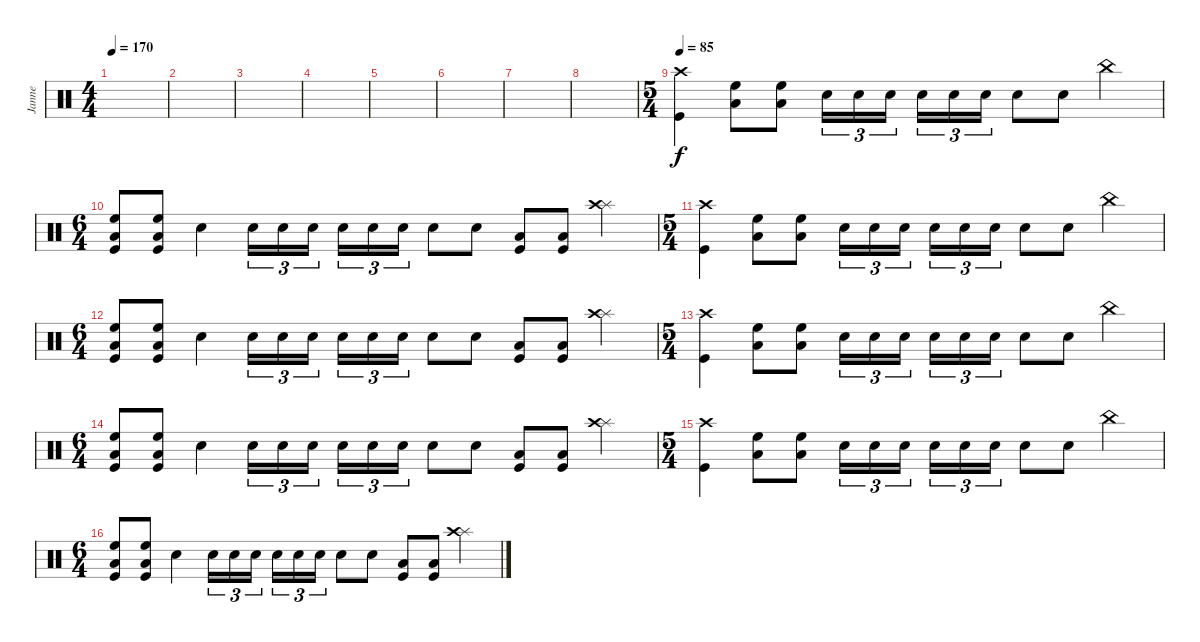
\track ("Janne" "Janne") {instrument percussion}
\staff {score}
\articulation defaults
\ts (4 4)
\tempo 170
\clef neutral
\ks c
|
|
|
|
|
|
|
|
\ts (5 4)
\tempo 85
("Crash high (hit)" "Kick (hit)").4 ("Low Floor Tom (hit)" "High Floor Tom (hit)").8 ("Low Floor Tom (hit)" "High Floor Tom (hit)").8 "Electric Snare (hit)".16{tu (3 2)} "Electric Snare (hit)".16{tu (3 2)} "Electric Snare (hit)".16{tu (3 2)} "Electric Snare (hit)".16{tu (3 2)} "Electric Snare (hit)".16{tu (3 2)} "Electric Snare (hit)".16{tu (3 2)} "Electric Snare (hit)".8 "Electric Snare (hit)".8 "China (hit)".4 |
\ts (6 4)
("High Floor Tom (hit)" "Low Floor Tom (hit)" "Kick (hit)").8 ("High Floor Tom (hit)" "Low Floor Tom (hit)" "Kick (hit)").8 "Electric Snare (hit)".4 "Electric Snare (hit)".16{tu (3 2)} "Electric Snare (hit)".16{tu (3 2)} "Electric Snare (hit)".16{tu (3 2)} "Electric Snare (hit)".16{tu (3 2)} "Electric Snare (hit)".16{tu (3 2)} "Electric Snare (hit)".16{tu (3 2)} "Electric Snare (hit)".8 "Electric Snare (hit)".8 ("Kick (hit)" "Low Floor Tom (hit)").8 ("Kick (hit)" "Low Floor Tom (hit)").8 ("Splash (hit)" "Crash high (hit)").4 |
\ts (5 4)
("Crash high (hit)" "Kick (hit)").4 ("Low Floor Tom (hit)" "High Floor Tom (hit)").8 ("Low Floor Tom (hit)" "High Floor Tom (hit)").8 "Electric Snare (hit)".16{tu (3 2)} "Electric Snare (hit)".16{tu (3 2)} "Electric Snare (hit)".16{tu (3 2)} "Electric Snare (hit)".16{tu (3 2)} "Electric Snare (hit)".16{tu (3 2)} "Electric Snare (hit)".16{tu (3 2)} "Electric Snare (hit)".8 "Electric Snare (hit)".8 "China (hit)".4 |
\ts (6 4)
("High Floor Tom (hit)" "Low Floor Tom (hit)" "Kick (hit)").8 ("High Floor Tom (hit)" "Low Floor Tom (hit)" "Kick (hit)").8 "Electric Snare (hit)".4 "Electric Snare (hit)".16{tu (3 2)} "Electric Snare (hit)".16{tu (3 2)} "Electric Snare (hit)".16{tu (3 2)} "Electric Snare (hit)".16{tu (3 2)} "Electric Snare (hit)".16{tu (3 2)} "Electric Snare (hit)".16{tu (3 2)} "Electric Snare (hit)".8 "Electric Snare (hit)".8 ("Kick (hit)" "Low Floor Tom (hit)").8 ("Kick (hit)" "Low Floor Tom (hit)").8 ("Splash (hit)" "Crash high (hit)").4 |
\ts (5 4)
("Crash high (hit)" "Kick (hit)").4 ("Low Floor Tom (hit)" "High Floor Tom (hit)").8 ("Low Floor Tom (hit)" "High Floor Tom (hit)").8 "Electric Snare (hit)".16{tu (3 2)} "Electric Snare (hit)".16{tu (3 2)} "Electric Snare (hit)".16{tu (3 2)} "Electric Snare (hit)".16{tu (3 2)} "Electric Snare (hit)".16{tu (3 2)} "Electric Snare (hit)".16{tu (3 2)} "Electric Snare (hit)".8 "Electric Snare (hit)".8 "China (hit)".4 |
\ts (6 4)
("High Floor Tom (hit)" "Low Floor Tom (hit)" "Kick (hit)").8 ("High Floor Tom (hit)" "Low Floor Tom (hit)" "Kick (hit)").8 "Electric Snare (hit)".4 "Electric Snare (hit)".16{tu (3 2)} "Electric Snare (hit)".16{tu (3 2)} "Electric Snare (hit)".16{tu (3 2)} "Electric Snare (hit)".16{tu (3 2)} "Electric Snare (hit)".16{tu (3 2)} "Electric Snare (hit)".16{tu (3 2)} "Electric Snare (hit)".8 "Electric Snare (hit)".8 ("Kick (hit)" "Low Floor Tom (hit)").8 ("Kick (hit)" "Low Floor Tom (hit)").8 ("Splash (hit)" "Crash high (hit)").4 |
\ts (5 4)
("Crash high (hit)" "Kick (hit)").4 ("Low Floor Tom (hit)" "High Floor Tom (hit)").8 ("Low Floor Tom (hit)" "High Floor Tom (hit)").8 "Electric Snare (hit)".16{tu (3 2)} "Electric Snare (hit)".16{tu (3 2)} "Electric Snare (hit)".16{tu (3 2)} "Electric Snare (hit)".16{tu (3 2)} "Electric Snare (hit)".16{tu (3 2)} "Electric Snare (hit)".16{tu (3 2)} "Electric Snare (hit)".8 "Electric Snare (hit)".8 "China (hit)".4 |
\ts (6 4)
("High Floor Tom (hit)" "Low Floor Tom (hit)" "Kick (hit)").8 ("High Floor Tom (hit)" "Low Floor Tom (hit)" "Kick (hit)").8 "Electric Snare (hit)".4 "Electric Snare (hit)".16{tu (3 2)} "Electric Snare (hit)".16{tu (3 2)} "Electric Snare (hit)".16{tu (3 2)} "Electric Snare (hit)".16{tu (3 2)} "Electric Snare (hit)".16{tu (3 2)} "Electric Snare (hit)".16{tu (3 2)} "Electric Snare (hit)".8 "Electric Snare (hit)".8 ("Kick (hit)" "Low Floor Tom (hit)").8 ("Kick (hit)" "Low Floor Tom (hit)").8 ("Splash (hit)" "Crash high (hit)").4
